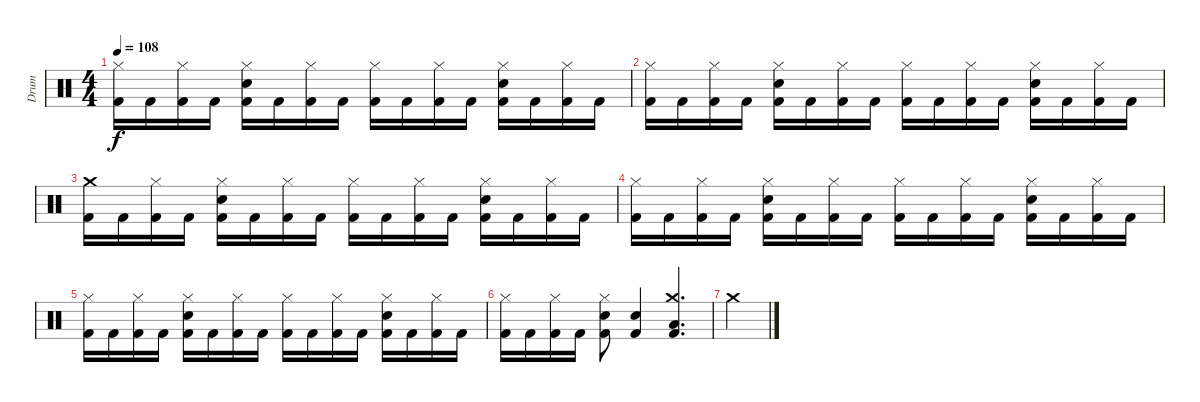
\track ("Drum" "Drum") {instrument percussion}
\staff {score}
\articulation defaults
\ts (4 4)
\tempo 108
\clef neutral
\ks c
("Hi-Hat (closed)" "Kick (hit) 2").16{dy f} "Kick (hit) 2".16 ("Hi-Hat (closed)" "Kick (hit) 2").16 "Kick (hit) 2".16 ("Hi-Hat (closed)" "Electric Snare (hit)" "Kick (hit) 2").16 "Kick (hit) 2".16 ("Hi-Hat (closed)" "Kick (hit) 2").16 "Kick (hit) 2".16 ("Hi-Hat (closed)" "Kick (hit) 2").16 "Kick (hit) 2".16 ("Hi-Hat (closed)" "Kick (hit) 2").16 "Kick (hit) 2".16 ("Hi-Hat (closed)" "Electric Snare (hit)" "Kick (hit) 2").16 "Kick (hit) 2".16 ("Hi-Hat (closed)" "Kick (hit) 2").16 "Kick (hit) 2".16 |
("Hi-Hat (closed)" "Kick (hit) 2").16 "Kick (hit) 2".16 ("Hi-Hat (closed)" "Kick (hit) 2").16 "Kick (hit) 2".16 ("Hi-Hat (closed)" "Electric Snare (hit)" "Kick (hit) 2").16 "Kick (hit) 2".16 ("Hi-Hat (closed)" "Kick (hit) 2").16 "Kick (hit) 2".16 ("Hi-Hat (closed)" "Kick (hit) 2").16 "Kick (hit) 2".16 ("Hi-Hat (closed)" "Kick (hit) 2").16 "Kick (hit) 2".16 ("Hi-Hat (closed)" "Electric Snare (hit)" "Kick (hit) 2").16 "Kick (hit) 2".16 ("Hi-Hat (closed)" "Kick (hit) 2").16 "Kick (hit) 2".16 |
("Crash medium (hit)" "Kick (hit) 2").16 "Kick (hit) 2".16 ("Hi-Hat (closed)" "Kick (hit) 2").16 "Kick (hit) 2".16 ("Hi-Hat (closed)" "Electric Snare (hit)" "Kick (hit) 2").16 "Kick (hit) 2".16 ("Hi-Hat (closed)" "Kick (hit) 2").16 "Kick (hit) 2".16 ("Hi-Hat (closed)" "Kick (hit) 2").16 "Kick (hit) 2".16 ("Hi-Hat (closed)" "Kick (hit) 2").16 "Kick (hit) 2".16 ("Hi-Hat (closed)" "Electric Snare (hit)" "Kick (hit) 2").16 "Kick (hit) 2".16 ("Hi-Hat (closed)" "Kick (hit) 2").16 "Kick (hit) 2".16 |
("Hi-Hat (closed)" "Kick (hit) 2").16 "Kick (hit) 2".16 ("Hi-Hat (closed)" "Kick (hit) 2").16 "Kick (hit) 2".16 ("Hi-Hat (closed)" "Electric Snare (hit)" "Kick (hit) 2").16 "Kick (hit) 2".16 ("Hi-Hat (closed)" "Kick (hit) 2").16 "Kick (hit) 2".16 ("Hi-Hat (closed)" "Kick (hit) 2").16 "Kick (hit) 2".16 ("Hi-Hat (closed)" "Kick (hit) 2").16 "Kick (hit) 2".16 ("Hi-Hat (closed)" "Electric Snare (hit)" "Kick (hit) 2").16 "Kick (hit) 2".16 ("Hi-Hat (closed)" "Kick (hit) 2").16 "Kick (hit) 2".16 |
("Hi-Hat (closed)" "Kick (hit) 2").16 "Kick (hit) 2".16 ("Hi-Hat (closed)" "Kick (hit) 2").16 "Kick (hit) 2".16 ("Hi-Hat (closed)" "Electric Snare (hit)" "Kick (hit) 2").16 "Kick (hit) 2".16 ("Hi-Hat (closed)" "Kick (hit) 2").16 "Kick (hit) 2".16 ("Hi-Hat (closed)" "Kick (hit) 2").16 "Kick (hit) 2".16 ("Hi-Hat (closed)" "Kick (hit) 2").16 "Kick (hit) 2".16 ("Hi-Hat (closed)" "Electric Snare (hit)" "Kick (hit) 2").16 "Kick (hit) 2".16 ("Hi-Hat (closed)" "Kick (hit) 2").16 "Kick (hit) 2".16 |
("Hi-Hat (closed)" "Kick (hit) 2").16 "Kick (hit) 2".16 ("Hi-Hat (closed)" "Kick (hit) 2").16 "Kick (hit) 2".16 ("Hi-Hat (closed)" "Electric Snare (hit)" "Kick (hit) 2").8 ("Snare (hit) 2" "Kick (hit) 2").4 ("Crash medium (hit)" "Low Floor Tom (hit)" "Kick (hit) 2").4{d} |
"Crash medium (hit)".4
